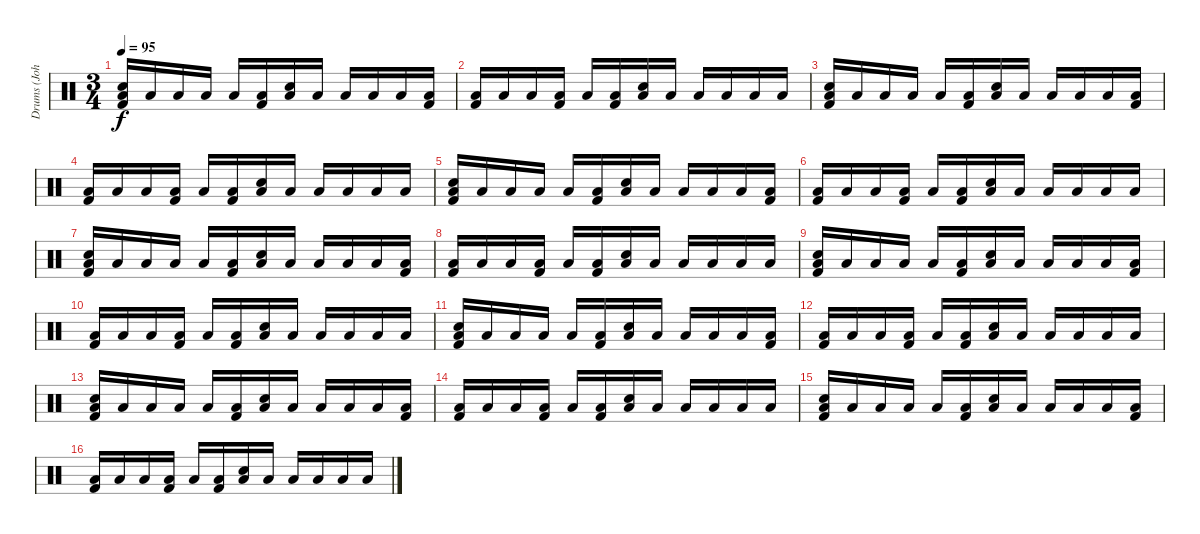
\track ("Drums (John Otto)" "Drums (Joh") {instrument percussion}
\staff {score}
\articulation defaults
\ts (3 4)
\tempo 95
\clef neutral
\ks c
("Electric Snare (hit)" "Low Tom (hit)" "Kick (hit) 2").16{dy f} "Low Tom (hit)".16 "Low Tom (hit)".16 "Low Tom (hit)".16 "Low Tom (hit)".16 ("Low Tom (hit)" "Kick (hit) 2").16 ("Low Tom (hit)" "Electric Snare (hit)").16 "Low Tom (hit)".16 "Low Tom (hit)".16 "Low Tom (hit)".16 "Low Tom (hit)".16 ("Low Tom (hit)" "Kick (hit) 2").16 |
("Low Tom (hit)" "Kick (hit) 2").16 "Low Tom (hit)".16 "Low Tom (hit)".16 ("Low Tom (hit)" "Kick (hit) 2").16 "Low Tom (hit)".16 ("Low Tom (hit)" "Kick (hit) 2").16 ("Low Tom (hit)" "Electric Snare (hit)").16 "Low Tom (hit)".16 "Low Tom (hit)".16 "Low Tom (hit)".16 "Low Tom (hit)".16 "Low Tom (hit)".16 |
("Electric Snare (hit)" "Low Tom (hit)" "Kick (hit) 2").16 "Low Tom (hit)".16 "Low Tom (hit)".16 "Low Tom (hit)".16 "Low Tom (hit)".16 ("Low Tom (hit)" "Kick (hit) 2").16 ("Low Tom (hit)" "Electric Snare (hit)").16 "Low Tom (hit)".16 "Low Tom (hit)".16 "Low Tom (hit)".16 "Low Tom (hit)".16 ("Low Tom (hit)" "Kick (hit) 2").16 |
("Low Tom (hit)" "Kick (hit) 2").16 "Low Tom (hit)".16 "Low Tom (hit)".16 ("Low Tom (hit)" "Kick (hit) 2").16 "Low Tom (hit)".16 ("Low Tom (hit)" "Kick (hit) 2").16 ("Low Tom (hit)" "Electric Snare (hit)").16 "Low Tom (hit)".16 "Low Tom (hit)".16 "Low Tom (hit)".16 "Low Tom (hit)".16 "Low Tom (hit)".16 |
("Electric Snare (hit)" "Low Tom (hit)" "Kick (hit) 2").16 "Low Tom (hit)".16 "Low Tom (hit)".16 "Low Tom (hit)".16 "Low Tom (hit)".16 ("Low Tom (hit)" "Kick (hit) 2").16 ("Low Tom (hit)" "Electric Snare (hit)").16 "Low Tom (hit)".16 "Low Tom (hit)".16 "Low Tom (hit)".16 "Low Tom (hit)".16 ("Low Tom (hit)" "Kick (hit) 2").16 |
("Low Tom (hit)" "Kick (hit) 2").16 "Low Tom (hit)".16 "Low Tom (hit)".16 ("Low Tom (hit)" "Kick (hit) 2").16 "Low Tom (hit)".16 ("Low Tom (hit)" "Kick (hit) 2").16 ("Low Tom (hit)" "Electric Snare (hit)").16 "Low Tom (hit)".16 "Low Tom (hit)".16 "Low Tom (hit)".16 "Low Tom (hit)".16 "Low Tom (hit)".16 |
("Electric Snare (hit)" "Low Tom (hit)" "Kick (hit) 2").16 "Low Tom (hit)".16 "Low Tom (hit)".16 "Low Tom (hit)".16 "Low Tom (hit)".16 ("Low Tom (hit)" "Kick (hit) 2").16 ("Low Tom (hit)" "Electric Snare (hit)").16 "Low Tom (hit)".16 "Low Tom (hit)".16 "Low Tom (hit)".16 "Low Tom (hit)".16 ("Low Tom (hit)" "Kick (hit) 2").16 |
("Low Tom (hit)" "Kick (hit) 2").16 "Low Tom (hit)".16 "Low Tom (hit)".16 ("Low Tom (hit)" "Kick (hit) 2").16 "Low Tom (hit)".16 ("Low Tom (hit)" "Kick (hit) 2").16 ("Low Tom (hit)" "Electric Snare (hit)").16 "Low Tom (hit)".16 "Low Tom (hit)".16 "Low Tom (hit)".16 "Low Tom (hit)".16 "Low Tom (hit)".16 |
("Electric Snare (hit)" "Low Tom (hit)" "Kick (hit) 2").16 "Low Tom (hit)".16 "Low Tom (hit)".16 "Low Tom (hit)".16 "Low Tom (hit)".16 ("Low Tom (hit)" "Kick (hit) 2").16 ("Low Tom (hit)" "Electric Snare (hit)").16 "Low Tom (hit)".16 "Low Tom (hit)".16 "Low Tom (hit)".16 "Low Tom (hit)".16 ("Low Tom (hit)" "Kick (hit) 2").16 |
("Low Tom (hit)" "Kick (hit) 2").16 "Low Tom (hit)".16 "Low Tom (hit)".16 ("Low Tom (hit)" "Kick (hit) 2").16 "Low Tom (hit)".16 ("Low Tom (hit)" "Kick (hit) 2").16 ("Low Tom (hit)" "Electric Snare (hit)").16 "Low Tom (hit)".16 "Low Tom (hit)".16 "Low Tom (hit)".16 "Low Tom (hit)".16 "Low Tom (hit)".16 |
("Electric Snare (hit)" "Low Tom (hit)" "Kick (hit) 2").16 "Low Tom (hit)".16 "Low Tom (hit)".16 "Low Tom (hit)".16 "Low Tom (hit)".16 ("Low Tom (hit)" "Kick (hit) 2").16 ("Low Tom (hit)" "Electric Snare (hit)").16 "Low Tom (hit)".16 "Low Tom (hit)".16 "Low Tom (hit)".16 "Low Tom (hit)".16 ("Low Tom (hit)" "Kick (hit) 2").16 |
("Low Tom (hit)" "Kick (hit) 2").16 "Low Tom (hit)".16 "Low Tom (hit)".16 ("Low Tom (hit)" "Kick (hit) 2").16 "Low Tom (hit)".16 ("Low Tom (hit)" "Kick (hit) 2").16 ("Low Tom (hit)" "Electric Snare (hit)").16 "Low Tom (hit)".16 "Low Tom (hit)".16 "Low Tom (hit)".16 "Low Tom (hit)".16 "Low Tom (hit)".16 |
("Electric Snare (hit)" "Low Tom (hit)" "Kick (hit) 2").16 "Low Tom (hit)".16 "Low Tom (hit)".16 "Low Tom (hit)".16 "Low Tom (hit)".16 ("Low Tom (hit)" "Kick (hit) 2").16 ("Low Tom (hit)" "Electric Snare (hit)").16 "Low Tom (hit)".16 "Low Tom (hit)".16 "Low Tom (hit)".16 "Low Tom (hit)".16 ("Low Tom (hit)" "Kick (hit) 2").16 |
("Low Tom (hit)" "Kick (hit) 2").16 "Low Tom (hit)".16 "Low Tom (hit)".16 ("Low Tom (hit)" "Kick (hit) 2").16 "Low Tom (hit)".16 ("Low Tom (hit)" "Kick (hit) 2").16 ("Low Tom (hit)" "Electric Snare (hit)").16 "Low Tom (hit)".16 "Low Tom (hit)".16 "Low Tom (hit)".16 "Low Tom (hit)".16 "Low Tom (hit)".16 |
("Electric Snare (hit)" "Low Tom (hit)" "Kick (hit) 2").16 "Low Tom (hit)".16 "Low Tom (hit)".16 "Low Tom (hit)".16 "Low Tom (hit)".16 ("Low Tom (hit)" "Kick (hit) 2").16 ("Low Tom (hit)" "Electric Snare (hit)").16 "Low Tom (hit)".16 "Low Tom (hit)".16 "Low Tom (hit)".16 "Low Tom (hit)".16 ("Low Tom (hit)" "Kick (hit) 2").16 |
("Low Tom (hit)" "Kick (hit) 2").16 "Low Tom (hit)".16 "Low Tom (hit)".16 ("Low Tom (hit)" "Kick (hit) 2").16 "Low Tom (hit)".16 ("Low Tom (hit)" "Kick (hit) 2").16 ("Low Tom (hit)" "Electric Snare (hit)").16 "Low Tom (hit)".16 "Low Tom (hit)".16 "Low Tom (hit)".16 "Low Tom (hit)".16 "Low Tom (hit)".16
